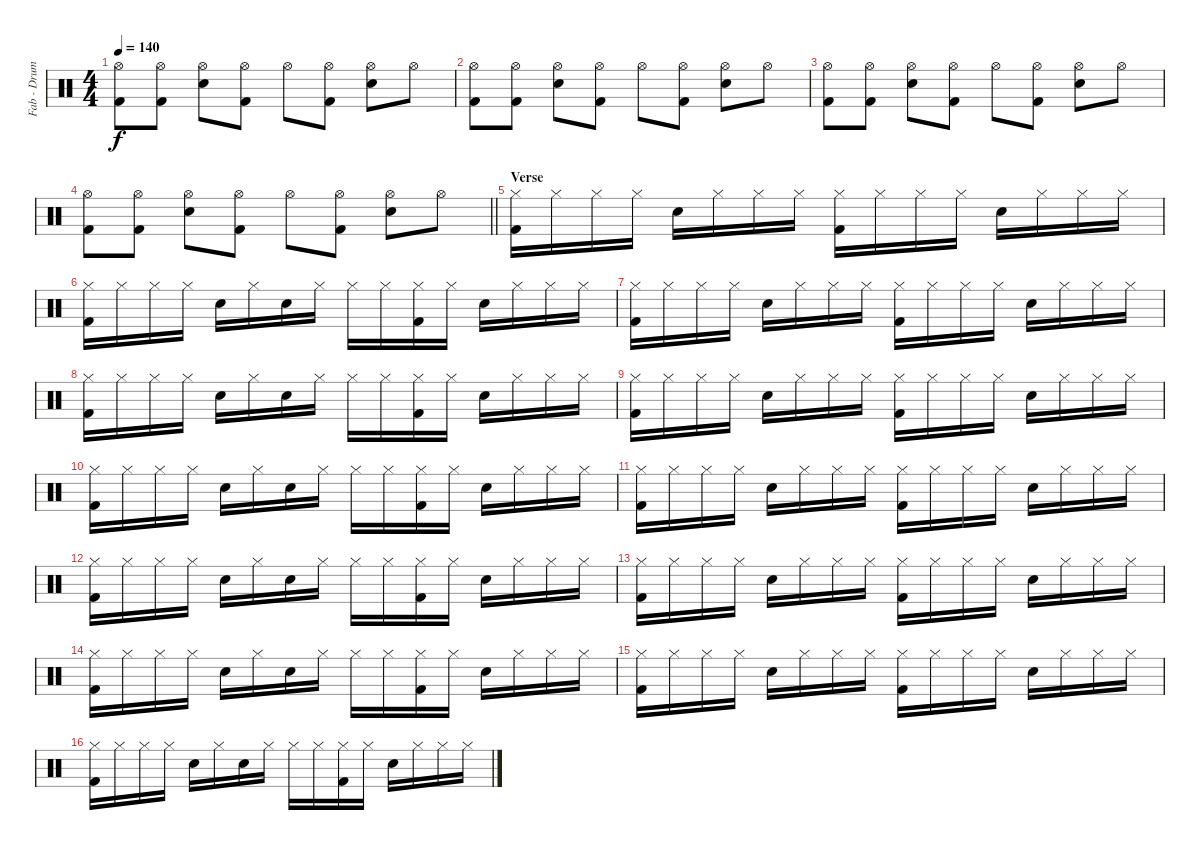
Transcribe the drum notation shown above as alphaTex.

\track ("Fab - Drums MIDI" "Fab - Drum") {instrument percussion}
\staff {score}
\articulation defaults
\ts (4 4)
\tempo 140
\clef neutral
\ks c
("Hi-Hat (open)" "Kick (hit) 2").8{dy f} ("Hi-Hat (open)" "Kick (hit) 2").8 ("Hi-Hat (open)" "Snare (hit) 2").8 ("Hi-Hat (open)" "Kick (hit) 2").8 "Hi-Hat (open)".8 ("Hi-Hat (open)" "Kick (hit) 2").8 ("Hi-Hat (open)" "Snare (hit) 2").8 "Hi-Hat (open)".8 |
("Hi-Hat (open)" "Kick (hit) 2").8 ("Hi-Hat (open)" "Kick (hit) 2").8 ("Hi-Hat (open)" "Snare (hit) 2").8 ("Hi-Hat (open)" "Kick (hit) 2").8 "Hi-Hat (open)".8 ("Hi-Hat (open)" "Kick (hit) 2").8 ("Hi-Hat (open)" "Snare (hit) 2").8 "Hi-Hat (open)".8 |
("Hi-Hat (open)" "Kick (hit) 2").8 ("Hi-Hat (open)" "Kick (hit) 2").8 ("Hi-Hat (open)" "Snare (hit) 2").8 ("Hi-Hat (open)" "Kick (hit) 2").8 "Hi-Hat (open)".8 ("Hi-Hat (open)" "Kick (hit) 2").8 ("Hi-Hat (open)" "Snare (hit) 2").8 "Hi-Hat (open)".8 |
\barLineRight lightlight
("Hi-Hat (open)" "Kick (hit) 2").8 ("Hi-Hat (open)" "Kick (hit) 2").8 ("Hi-Hat (open)" "Snare (hit) 2").8 ("Hi-Hat (open)" "Kick (hit) 2").8 "Hi-Hat (open)".8 ("Hi-Hat (open)" "Kick (hit) 2").8 ("Hi-Hat (open)" "Snare (hit) 2").8 "Hi-Hat (open)".8 |
\section ("" "Verse")
("Hi-Hat (closed)" "Kick (hit) 2").16 "Hi-Hat (closed)".16 "Hi-Hat (closed)".16 "Hi-Hat (closed)".16 "Snare (hit) 2".16 "Hi-Hat (closed)".16 "Hi-Hat (closed)".16 "Hi-Hat (closed)".16 ("Hi-Hat (closed)" "Kick (hit) 2").16 "Hi-Hat (closed)".16 "Hi-Hat (closed)".16 "Hi-Hat (closed)".16 "Snare (hit) 2".16 "Hi-Hat (closed)".16 "Hi-Hat (closed)".16 "Hi-Hat (closed)".16 |
("Hi-Hat (closed)" "Kick (hit) 2").16 "Hi-Hat (closed)".16 "Hi-Hat (closed)".16 "Hi-Hat (closed)".16 "Snare (hit) 2".16 "Hi-Hat (closed)".16 "Snare (hit) 2".16 "Hi-Hat (closed)".16 "Hi-Hat (closed)".16 "Hi-Hat (closed)".16 ("Hi-Hat (closed)" "Kick (hit) 2").16 "Hi-Hat (closed)".16 "Snare (hit) 2".16 "Hi-Hat (closed)".16 "Hi-Hat (closed)".16 "Hi-Hat (closed)".16 |
("Hi-Hat (closed)" "Kick (hit) 2").16 "Hi-Hat (closed)".16 "Hi-Hat (closed)".16 "Hi-Hat (closed)".16 "Snare (hit) 2".16 "Hi-Hat (closed)".16 "Hi-Hat (closed)".16 "Hi-Hat (closed)".16 ("Hi-Hat (closed)" "Kick (hit) 2").16 "Hi-Hat (closed)".16 "Hi-Hat (closed)".16 "Hi-Hat (closed)".16 "Snare (hit) 2".16 "Hi-Hat (closed)".16 "Hi-Hat (closed)".16 "Hi-Hat (closed)".16 |
("Hi-Hat (closed)" "Kick (hit) 2").16 "Hi-Hat (closed)".16 "Hi-Hat (closed)".16 "Hi-Hat (closed)".16 "Snare (hit) 2".16 "Hi-Hat (closed)".16 "Snare (hit) 2".16 "Hi-Hat (closed)".16 "Hi-Hat (closed)".16 "Hi-Hat (closed)".16 ("Hi-Hat (closed)" "Kick (hit) 2").16 "Hi-Hat (closed)".16 "Snare (hit) 2".16 "Hi-Hat (closed)".16 "Hi-Hat (closed)".16 "Hi-Hat (closed)".16 |
("Hi-Hat (closed)" "Kick (hit) 2").16 "Hi-Hat (closed)".16 "Hi-Hat (closed)".16 "Hi-Hat (closed)".16 "Snare (hit) 2".16 "Hi-Hat (closed)".16 "Hi-Hat (closed)".16 "Hi-Hat (closed)".16 ("Hi-Hat (closed)" "Kick (hit) 2").16 "Hi-Hat (closed)".16 "Hi-Hat (closed)".16 "Hi-Hat (closed)".16 "Snare (hit) 2".16 "Hi-Hat (closed)".16 "Hi-Hat (closed)".16 "Hi-Hat (closed)".16 |
("Hi-Hat (closed)" "Kick (hit) 2").16 "Hi-Hat (closed)".16 "Hi-Hat (closed)".16 "Hi-Hat (closed)".16 "Snare (hit) 2".16 "Hi-Hat (closed)".16 "Snare (hit) 2".16 "Hi-Hat (closed)".16 "Hi-Hat (closed)".16 "Hi-Hat (closed)".16 ("Hi-Hat (closed)" "Kick (hit) 2").16 "Hi-Hat (closed)".16 "Snare (hit) 2".16 "Hi-Hat (closed)".16 "Hi-Hat (closed)".16 "Hi-Hat (closed)".16 |
("Hi-Hat (closed)" "Kick (hit) 2").16 "Hi-Hat (closed)".16 "Hi-Hat (closed)".16 "Hi-Hat (closed)".16 "Snare (hit) 2".16 "Hi-Hat (closed)".16 "Hi-Hat (closed)".16 "Hi-Hat (closed)".16 ("Hi-Hat (closed)" "Kick (hit) 2").16 "Hi-Hat (closed)".16 "Hi-Hat (closed)".16 "Hi-Hat (closed)".16 "Snare (hit) 2".16 "Hi-Hat (closed)".16 "Hi-Hat (closed)".16 "Hi-Hat (closed)".16 |
("Hi-Hat (closed)" "Kick (hit) 2").16 "Hi-Hat (closed)".16 "Hi-Hat (closed)".16 "Hi-Hat (closed)".16 "Snare (hit) 2".16 "Hi-Hat (closed)".16 "Snare (hit) 2".16 "Hi-Hat (closed)".16 "Hi-Hat (closed)".16 "Hi-Hat (closed)".16 ("Hi-Hat (closed)" "Kick (hit) 2").16 "Hi-Hat (closed)".16 "Snare (hit) 2".16 "Hi-Hat (closed)".16 "Hi-Hat (closed)".16 "Hi-Hat (closed)".16 |
("Hi-Hat (closed)" "Kick (hit) 2").16 "Hi-Hat (closed)".16 "Hi-Hat (closed)".16 "Hi-Hat (closed)".16 "Snare (hit) 2".16 "Hi-Hat (closed)".16 "Hi-Hat (closed)".16 "Hi-Hat (closed)".16 ("Hi-Hat (closed)" "Kick (hit) 2").16 "Hi-Hat (closed)".16 "Hi-Hat (closed)".16 "Hi-Hat (closed)".16 "Snare (hit) 2".16 "Hi-Hat (closed)".16 "Hi-Hat (closed)".16 "Hi-Hat (closed)".16 |
("Hi-Hat (closed)" "Kick (hit) 2").16 "Hi-Hat (closed)".16 "Hi-Hat (closed)".16 "Hi-Hat (closed)".16 "Snare (hit) 2".16 "Hi-Hat (closed)".16 "Snare (hit) 2".16 "Hi-Hat (closed)".16 "Hi-Hat (closed)".16 "Hi-Hat (closed)".16 ("Hi-Hat (closed)" "Kick (hit) 2").16 "Hi-Hat (closed)".16 "Snare (hit) 2".16 "Hi-Hat (closed)".16 "Hi-Hat (closed)".16 "Hi-Hat (closed)".16 |
("Hi-Hat (closed)" "Kick (hit) 2").16 "Hi-Hat (closed)".16 "Hi-Hat (closed)".16 "Hi-Hat (closed)".16 "Snare (hit) 2".16 "Hi-Hat (closed)".16 "Hi-Hat (closed)".16 "Hi-Hat (closed)".16 ("Hi-Hat (closed)" "Kick (hit) 2").16 "Hi-Hat (closed)".16 "Hi-Hat (closed)".16 "Hi-Hat (closed)".16 "Snare (hit) 2".16 "Hi-Hat (closed)".16 "Hi-Hat (closed)".16 "Hi-Hat (closed)".16 |
("Hi-Hat (closed)" "Kick (hit) 2").16 "Hi-Hat (closed)".16 "Hi-Hat (closed)".16 "Hi-Hat (closed)".16 "Snare (hit) 2".16 "Hi-Hat (closed)".16 "Snare (hit) 2".16 "Hi-Hat (closed)".16 "Hi-Hat (closed)".16 "Hi-Hat (closed)".16 ("Hi-Hat (closed)" "Kick (hit) 2").16 "Hi-Hat (closed)".16 "Snare (hit) 2".16 "Hi-Hat (closed)".16 "Hi-Hat (closed)".16 "Hi-Hat (closed)".16
